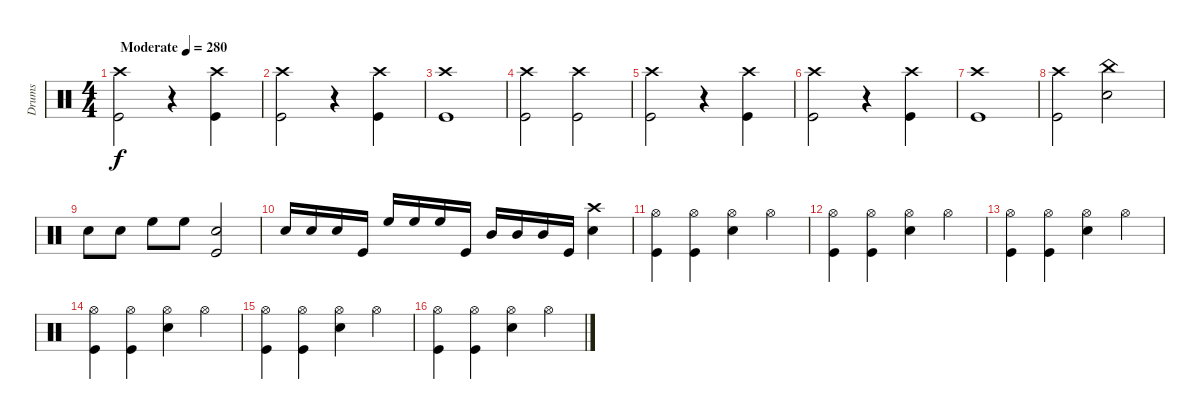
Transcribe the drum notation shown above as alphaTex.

\track ("Drums" "Drums") {instrument percussion}
\staff {score}
\articulation defaults
\ts (4 4)
\tempo (280 "Moderate")
\clef neutral
\ks c
("Crash high (hit)" "Kick (hit)").2{dy f} r.4 ("Crash high (hit)" "Kick (hit)").4 |
("Crash high (hit)" "Kick (hit)").2 r.4 ("Crash high (hit)" "Kick (hit)").4 |
("Crash high (hit)" "Kick (hit)").1 |
("Crash high (hit)" "Kick (hit)").2 ("Crash high (hit)" "Kick (hit)").2 |
("Crash high (hit)" "Kick (hit)").2 r.4 ("Crash high (hit)" "Kick (hit)").4 |
("Crash high (hit)" "Kick (hit)").2 r.4 ("Crash high (hit)" "Kick (hit)").4 |
("Crash high (hit)" "Kick (hit)").1 |
("Crash high (hit)" "Kick (hit)").2 ("China (hit)" "Electric Snare (hit)").2 |
"Electric Snare (hit)".8 "Electric Snare (hit)".8 "High Floor Tom (hit)".8 "High Floor Tom (hit)".8 ("Electric Snare (hit)" "Kick (hit)").2 |
"Electric Snare (hit)".16 "Electric Snare (hit)".16 "Electric Snare (hit)".16 "Kick (hit)".16 "High Floor Tom (hit)".16 "High Floor Tom (hit)".16 "High Floor Tom (hit)".16 "Kick (hit)".16 "Mid Tom (hit)".16 "Mid Tom (hit)".16 "Mid Tom (hit)".16 "Kick (hit)".16 ("Crash high (hit)" "Electric Snare (hit)").4 |
("Hi-Hat (open)" "Kick (hit)").4 ("Hi-Hat (open)" "Kick (hit)").4 ("Hi-Hat (open)" "Electric Snare (hit)").4 "Hi-Hat (open)".4 |
("Hi-Hat (open)" "Kick (hit)").4 ("Hi-Hat (open)" "Kick (hit)").4 ("Hi-Hat (open)" "Electric Snare (hit)").4 "Hi-Hat (open)".4 |
("Hi-Hat (open)" "Kick (hit)").4 ("Hi-Hat (open)" "Kick (hit)").4 ("Hi-Hat (open)" "Electric Snare (hit)").4 "Hi-Hat (open)".4 |
("Hi-Hat (open)" "Kick (hit)").4 ("Hi-Hat (open)" "Kick (hit)").4 ("Hi-Hat (open)" "Electric Snare (hit)").4 "Hi-Hat (open)".4 |
("Hi-Hat (open)" "Kick (hit)").4 ("Hi-Hat (open)" "Kick (hit)").4 ("Hi-Hat (open)" "Electric Snare (hit)").4 "Hi-Hat (open)".4 |
("Hi-Hat (open)" "Kick (hit)").4 ("Hi-Hat (open)" "Kick (hit)").4 ("Hi-Hat (open)" "Electric Snare (hit)").4 "Hi-Hat (open)".4
